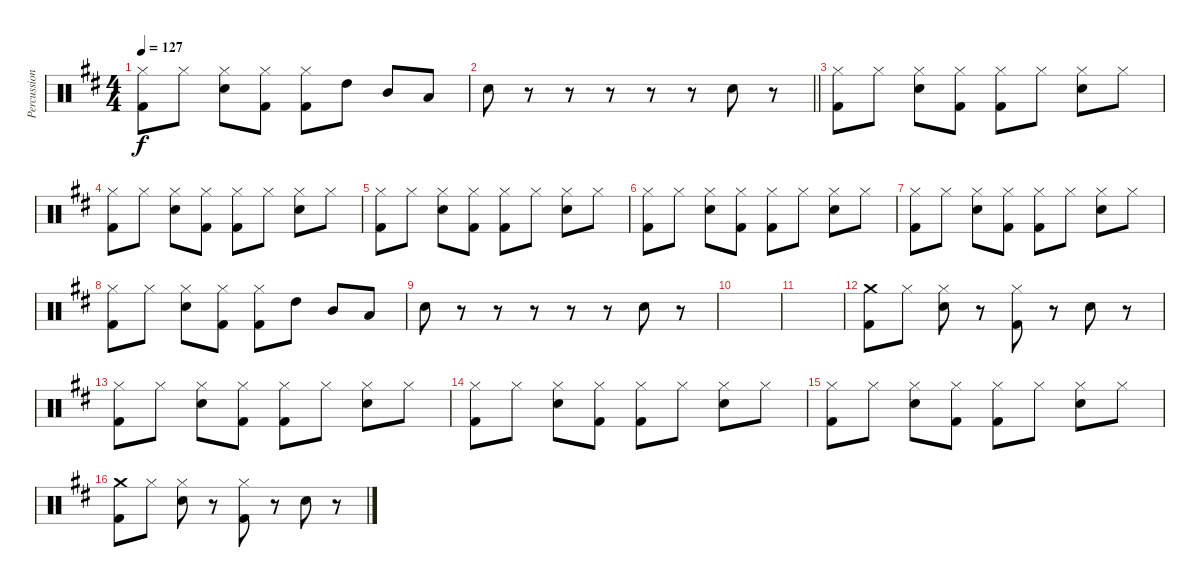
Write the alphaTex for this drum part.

\track ("Percussion" "Percussion") {instrument percussion}
\staff {score}
\articulation defaults
\ts (4 4)
\tempo 127
\clef neutral
\ks d
("Hi-Hat (closed)" "Kick (hit) 2").8{dy f} "Hi-Hat (closed)".8 ("Hi-Hat (closed)" "Electric Snare (hit)").8 ("Hi-Hat (closed)" "Kick (hit) 2").8 ("Hi-Hat (closed)" "Kick (hit) 2").8 "High Tom (hit)".8 "Mid Tom (hit)".8 "Low Tom (hit)".8 |
\barLineRight lightlight "Electric Snare (hit)".8
r.8 r.8 r.8 r.8 r.8 "Electric Snare (hit)".8 r.8 |
("Hi-Hat (closed)" "Kick (hit) 2").8 "Hi-Hat (closed)".8 ("Hi-Hat (closed)" "Electric Snare (hit)").8 ("Hi-Hat (closed)" "Kick (hit) 2").8 ("Hi-Hat (closed)" "Kick (hit) 2").8 "Hi-Hat (closed)".8 ("Hi-Hat (closed)" "Electric Snare (hit)").8 "Hi-Hat (closed)".8 |
("Hi-Hat (closed)" "Kick (hit) 2").8 "Hi-Hat (closed)".8 ("Hi-Hat (closed)" "Electric Snare (hit)").8 ("Hi-Hat (closed)" "Kick (hit) 2").8 ("Hi-Hat (closed)" "Kick (hit) 2").8 "Hi-Hat (closed)".8 ("Hi-Hat (closed)" "Electric Snare (hit)").8 "Hi-Hat (closed)".8 |
("Hi-Hat (closed)" "Kick (hit) 2").8 "Hi-Hat (closed)".8 ("Hi-Hat (closed)" "Electric Snare (hit)").8 ("Hi-Hat (closed)" "Kick (hit) 2").8 ("Hi-Hat (closed)" "Kick (hit) 2").8 "Hi-Hat (closed)".8 ("Hi-Hat (closed)" "Electric Snare (hit)").8 "Hi-Hat (closed)".8 |
("Hi-Hat (closed)" "Kick (hit) 2").8 "Hi-Hat (closed)".8 ("Hi-Hat (closed)" "Electric Snare (hit)").8 ("Hi-Hat (closed)" "Kick (hit) 2").8 ("Hi-Hat (closed)" "Kick (hit) 2").8 "Hi-Hat (closed)".8 ("Hi-Hat (closed)" "Electric Snare (hit)").8 "Hi-Hat (closed)".8 |
("Hi-Hat (closed)" "Kick (hit) 2").8 "Hi-Hat (closed)".8 ("Hi-Hat (closed)" "Electric Snare (hit)").8 ("Hi-Hat (closed)" "Kick (hit) 2").8 ("Hi-Hat (closed)" "Kick (hit) 2").8 "Hi-Hat (closed)".8 ("Hi-Hat (closed)" "Electric Snare (hit)").8 "Hi-Hat (closed)".8 |
("Hi-Hat (closed)" "Kick (hit) 2").8 "Hi-Hat (closed)".8 ("Hi-Hat (closed)" "Electric Snare (hit)").8 ("Hi-Hat (closed)" "Kick (hit) 2").8 ("Hi-Hat (closed)" "Kick (hit) 2").8 "High Tom (hit)".8 "Mid Tom (hit)".8 "Low Tom (hit)".8 |
"Electric Snare (hit)".8 r.8 r.8 r.8 r.8 r.8 "Electric Snare (hit)".8 r.8 |
|
|
("Crash medium (hit)" "Kick (hit) 2").8 "Hi-Hat (closed)".8 ("Hi-Hat (closed)" "Electric Snare (hit)").8 r.8 ("Hi-Hat (closed)" "Kick (hit) 2").8 r.8 "Electric Snare (hit)".8 r.8 |
("Hi-Hat (closed)" "Kick (hit) 2").8 "Hi-Hat (closed)".8 ("Hi-Hat (closed)" "Electric Snare (hit)").8 ("Hi-Hat (closed)" "Kick (hit) 2").8 ("Hi-Hat (closed)" "Kick (hit) 2").8 "Hi-Hat (closed)".8 ("Hi-Hat (closed)" "Electric Snare (hit)").8 "Hi-Hat (closed)".8 |
("Hi-Hat (closed)" "Kick (hit) 2").8 "Hi-Hat (closed)".8 ("Hi-Hat (closed)" "Electric Snare (hit)").8 ("Hi-Hat (closed)" "Kick (hit) 2").8 ("Hi-Hat (closed)" "Kick (hit) 2").8 "Hi-Hat (closed)".8 ("Hi-Hat (closed)" "Electric Snare (hit)").8 "Hi-Hat (closed)".8 |
("Hi-Hat (closed)" "Kick (hit) 2").8 "Hi-Hat (closed)".8 ("Hi-Hat (closed)" "Electric Snare (hit)").8 ("Hi-Hat (closed)" "Kick (hit) 2").8 ("Hi-Hat (closed)" "Kick (hit) 2").8 "Hi-Hat (closed)".8 ("Hi-Hat (closed)" "Electric Snare (hit)").8 "Hi-Hat (closed)".8 |
("Crash medium (hit)" "Kick (hit) 2").8 "Hi-Hat (closed)".8 ("Hi-Hat (closed)" "Electric Snare (hit)").8 r.8 ("Hi-Hat (closed)" "Kick (hit) 2").8 r.8 "Electric Snare (hit)".8 r.8
